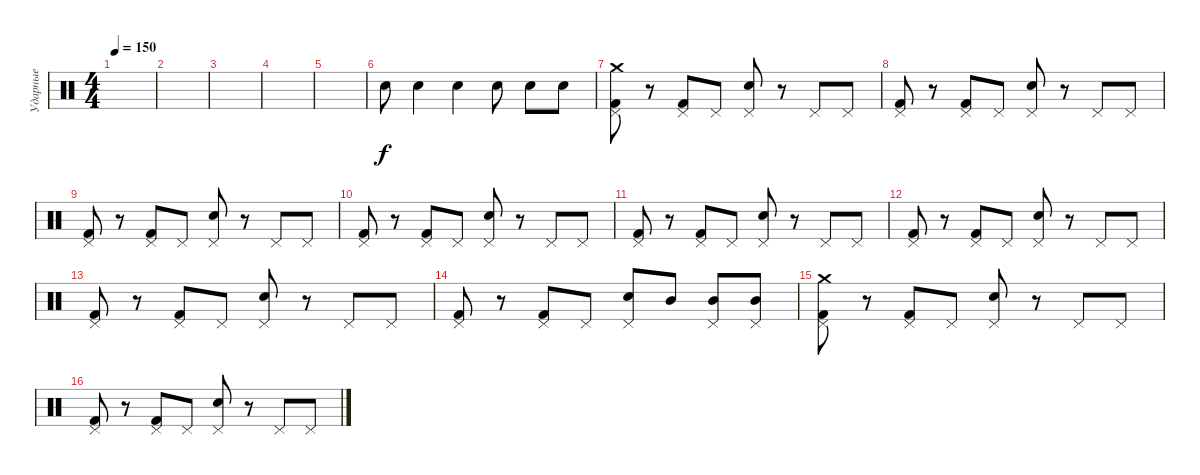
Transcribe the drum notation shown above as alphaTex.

\track ("Ударные" "Ударные") {instrument percussion}
\staff {score}
\articulation defaults
\ts (4 4)
\tempo 150
\clef neutral
\ks c
|
|
|
|
|
"Electric Snare (hit)".8 "Electric Snare (hit)".4 "Electric Snare (hit)".4 "Electric Snare (hit)".8 "Electric Snare (hit)".8 "Electric Snare (hit)".8 |
("Crash medium (hit)" "Kick (hit) 2" "Pedal Hi-Hat (hit)").8 r.8 ("Kick (hit) 2" "Pedal Hi-Hat (hit)").8 "Pedal Hi-Hat (hit)".8 ("Pedal Hi-Hat (hit)" "Electric Snare (hit)").8 r.8 "Pedal Hi-Hat (hit)".8 "Pedal Hi-Hat (hit)".8 |
("Kick (hit) 2" "Pedal Hi-Hat (hit)").8 r.8 ("Kick (hit) 2" "Pedal Hi-Hat (hit)").8 "Pedal Hi-Hat (hit)".8 ("Pedal Hi-Hat (hit)" "Electric Snare (hit)").8 r.8 "Pedal Hi-Hat (hit)".8 "Pedal Hi-Hat (hit)".8 |
("Kick (hit) 2" "Pedal Hi-Hat (hit)").8 r.8 ("Kick (hit) 2" "Pedal Hi-Hat (hit)").8 "Pedal Hi-Hat (hit)".8 ("Pedal Hi-Hat (hit)" "Electric Snare (hit)").8 r.8 "Pedal Hi-Hat (hit)".8 "Pedal Hi-Hat (hit)".8 |
("Kick (hit) 2" "Pedal Hi-Hat (hit)").8 r.8 ("Kick (hit) 2" "Pedal Hi-Hat (hit)").8 "Pedal Hi-Hat (hit)".8 ("Pedal Hi-Hat (hit)" "Electric Snare (hit)").8 r.8 "Pedal Hi-Hat (hit)".8 "Pedal Hi-Hat (hit)".8 |
("Kick (hit) 2" "Pedal Hi-Hat (hit)").8 r.8 ("Kick (hit) 2" "Pedal Hi-Hat (hit)").8 "Pedal Hi-Hat (hit)".8 ("Pedal Hi-Hat (hit)" "Electric Snare (hit)").8 r.8 "Pedal Hi-Hat (hit)".8 "Pedal Hi-Hat (hit)".8 |
("Kick (hit) 2" "Pedal Hi-Hat (hit)").8 r.8 ("Kick (hit) 2" "Pedal Hi-Hat (hit)").8 "Pedal Hi-Hat (hit)".8 ("Pedal Hi-Hat (hit)" "Electric Snare (hit)").8 r.8 "Pedal Hi-Hat (hit)".8 "Pedal Hi-Hat (hit)".8 |
("Kick (hit) 2" "Pedal Hi-Hat (hit)").8 r.8 ("Kick (hit) 2" "Pedal Hi-Hat (hit)").8 "Pedal Hi-Hat (hit)".8 ("Pedal Hi-Hat (hit)" "Electric Snare (hit)").8 r.8 "Pedal Hi-Hat (hit)".8 "Pedal Hi-Hat (hit)".8 |
("Kick (hit) 2" "Pedal Hi-Hat (hit)").8 r.8 ("Kick (hit) 2" "Pedal Hi-Hat (hit)").8 "Pedal Hi-Hat (hit)".8 ("Pedal Hi-Hat (hit)" "Electric Snare (hit)").8 "Mid Tom (hit)".8 ("Mid Tom (hit)" "Pedal Hi-Hat (hit)").8 ("Mid Tom (hit)" "Pedal Hi-Hat (hit)").8 |
("Crash medium (hit)" "Kick (hit) 2" "Pedal Hi-Hat (hit)").8 r.8 ("Kick (hit) 2" "Pedal Hi-Hat (hit)").8 "Pedal Hi-Hat (hit)".8 ("Pedal Hi-Hat (hit)" "Electric Snare (hit)").8 r.8 "Pedal Hi-Hat (hit)".8 "Pedal Hi-Hat (hit)".8 |
("Kick (hit) 2" "Pedal Hi-Hat (hit)").8 r.8 ("Kick (hit) 2" "Pedal Hi-Hat (hit)").8 "Pedal Hi-Hat (hit)".8 ("Pedal Hi-Hat (hit)" "Electric Snare (hit)").8 r.8 "Pedal Hi-Hat (hit)".8 "Pedal Hi-Hat (hit)".8
